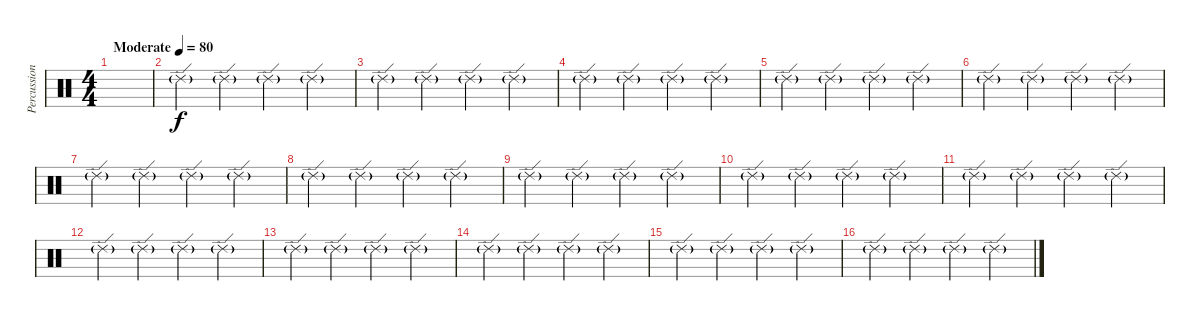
\track ("Percussion" "Percussion") {instrument percussion}
\staff {score}
\articulation defaults
\ts (4 4)
\tempo (80 "Moderate")
\clef neutral
\ks c
|
"Ride (edge) 2"{g}.4 "Ride (edge) 2"{g}.4 "Ride (edge) 2"{g}.4 "Ride (edge) 2"{g}.4 |
"Ride (edge) 2"{g}.4 "Ride (edge) 2"{g}.4 "Ride (edge) 2"{g}.4 "Ride (edge) 2"{g}.4 |
"Ride (edge) 2"{g}.4 "Ride (edge) 2"{g}.4 "Ride (edge) 2"{g}.4 "Ride (edge) 2"{g}.4 |
"Ride (edge) 2"{g}.4 "Ride (edge) 2"{g}.4 "Ride (edge) 2"{g}.4 "Ride (edge) 2"{g}.4 |
"Ride (edge) 2"{g}.4 "Ride (edge) 2"{g}.4 "Ride (edge) 2"{g}.4 "Ride (edge) 2"{g}.4 |
"Ride (edge) 2"{g}.4 "Ride (edge) 2"{g}.4 "Ride (edge) 2"{g}.4 "Ride (edge) 2"{g}.4 |
"Ride (edge) 2"{g}.4 "Ride (edge) 2"{g}.4 "Ride (edge) 2"{g}.4 "Ride (edge) 2"{g}.4 |
"Ride (edge) 2"{g}.4 "Ride (edge) 2"{g}.4 "Ride (edge) 2"{g}.4 "Ride (edge) 2"{g}.4 |
"Ride (edge) 2"{g}.4 "Ride (edge) 2"{g}.4 "Ride (edge) 2"{g}.4 "Ride (edge) 2"{g}.4 |
"Ride (edge) 2"{g}.4 "Ride (edge) 2"{g}.4 "Ride (edge) 2"{g}.4 "Ride (edge) 2"{g}.4 |
"Ride (edge) 2"{g}.4 "Ride (edge) 2"{g}.4 "Ride (edge) 2"{g}.4 "Ride (edge) 2"{g}.4 |
"Ride (edge) 2"{g}.4 "Ride (edge) 2"{g}.4 "Ride (edge) 2"{g}.4 "Ride (edge) 2"{g}.4 |
"Ride (edge) 2"{g}.4 "Ride (edge) 2"{g}.4 "Ride (edge) 2"{g}.4 "Ride (edge) 2"{g}.4 |
"Ride (edge) 2"{g}.4 "Ride (edge) 2"{g}.4 "Ride (edge) 2"{g}.4 "Ride (edge) 2"{g}.4 |
"Ride (edge) 2"{g}.4 "Ride (edge) 2"{g}.4 "Ride (edge) 2"{g}.4 "Ride (edge) 2"{g}.4
